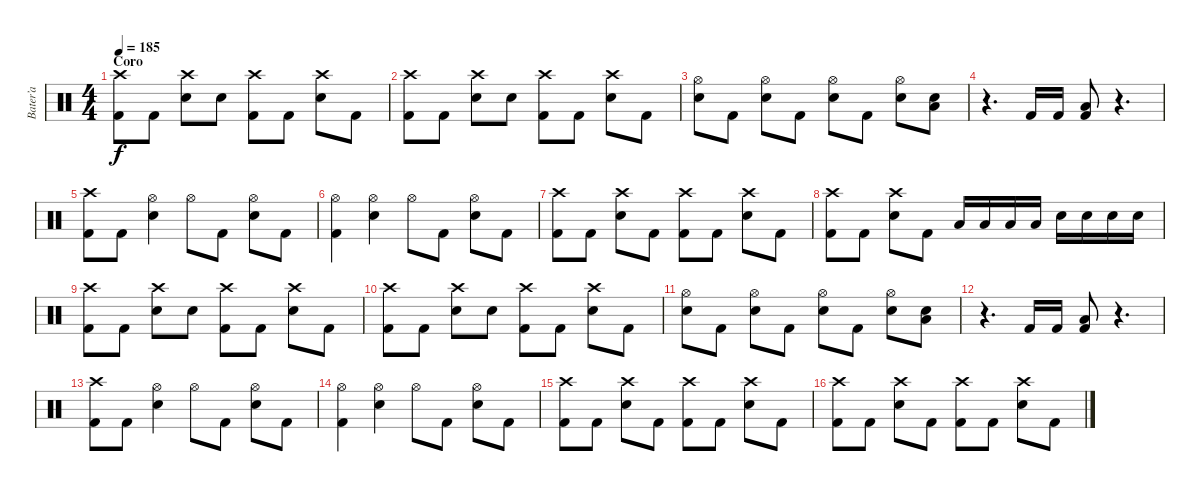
\track ("Bater’a" "Bater’a") {instrument percussion}
\staff {score}
\articulation defaults
\ts (4 4)
\section ("" "Coro")
\tempo 185
\clef neutral
\ks c
("Crash high (hit)" "Kick (hit) 2").8{dy f} "Kick (hit) 2".8 ("Crash high (hit)" "Electric Snare (hit)").8 "Electric Snare (hit)".8 ("Crash high (hit)" "Kick (hit) 2").8 "Kick (hit) 2".8 ("Crash high (hit)" "Electric Snare (hit)").8 "Kick (hit) 2".8 |
("Crash high (hit)" "Kick (hit) 2").8 "Kick (hit) 2".8 ("Crash high (hit)" "Electric Snare (hit)").8 "Electric Snare (hit)".8 ("Crash high (hit)" "Kick (hit) 2").8 "Kick (hit) 2".8 ("Crash high (hit)" "Electric Snare (hit)").8 "Kick (hit) 2".8 |
("Hi-Hat (open)" "Electric Snare (hit)").8 "Kick (hit) 2".8 ("Hi-Hat (open)" "Electric Snare (hit)").8 "Kick (hit) 2".8 ("Hi-Hat (open)" "Electric Snare (hit)").8 "Kick (hit) 2".8 ("Hi-Hat (open)" "Electric Snare (hit)").8 ("Low Floor Tom (hit)" "Electric Snare (hit)").8 |
r.4{d} "Kick (hit) 2".16 "Kick (hit) 2".16 ("Low Floor Tom (hit)" "Kick (hit) 2").8 r.4{d} |
("Crash high (hit)" "Kick (hit) 2").8 "Kick (hit) 2".8 ("Hi-Hat (open)" "Electric Snare (hit)").4 "Hi-Hat (open)".8 "Kick (hit) 2".8 ("Hi-Hat (open)" "Electric Snare (hit)").8 "Kick (hit) 2".8 |
("Hi-Hat (open)" "Kick (hit) 2").4 ("Hi-Hat (open)" "Electric Snare (hit)").4 "Hi-Hat (open)".8 "Kick (hit) 2".8 ("Hi-Hat (open)" "Electric Snare (hit)").8 "Kick (hit) 2".8 |
("Crash high (hit)" "Kick (hit) 2").8 "Kick (hit) 2".8 ("Crash high (hit)" "Electric Snare (hit)").8 "Kick (hit) 2".8 ("Crash high (hit)" "Kick (hit) 2").8 "Kick (hit) 2".8 ("Crash high (hit)" "Electric Snare (hit)").8 "Kick (hit) 2".8 |
("Crash high (hit)" "Kick (hit) 2").8 "Kick (hit) 2".8 ("Crash high (hit)" "Electric Snare (hit)").8 "Kick (hit) 2".8 "Low Tom (hit)".16 "Low Tom (hit)".16 "Low Tom (hit)".16 "Low Tom (hit)".16 "Electric Snare (hit)".16 "Electric Snare (hit)".16 "Electric Snare (hit)".16 "Electric Snare (hit)".16 |
("Crash high (hit)" "Kick (hit) 2").8 "Kick (hit) 2".8 ("Crash high (hit)" "Electric Snare (hit)").8 "Electric Snare (hit)".8 ("Crash high (hit)" "Kick (hit) 2").8 "Kick (hit) 2".8 ("Crash high (hit)" "Electric Snare (hit)").8 "Kick (hit) 2".8 |
("Crash high (hit)" "Kick (hit) 2").8 "Kick (hit) 2".8 ("Crash high (hit)" "Electric Snare (hit)").8 "Electric Snare (hit)".8 ("Crash high (hit)" "Kick (hit) 2").8 "Kick (hit) 2".8 ("Crash high (hit)" "Electric Snare (hit)").8 "Kick (hit) 2".8 |
("Hi-Hat (open)" "Electric Snare (hit)").8 "Kick (hit) 2".8 ("Hi-Hat (open)" "Electric Snare (hit)").8 "Kick (hit) 2".8 ("Hi-Hat (open)" "Electric Snare (hit)").8 "Kick (hit) 2".8 ("Hi-Hat (open)" "Electric Snare (hit)").8 ("Low Floor Tom (hit)" "Electric Snare (hit)").8 |
r.4{d} "Kick (hit) 2".16 "Kick (hit) 2".16 ("Low Floor Tom (hit)" "Kick (hit) 2").8 r.4{d} |
("Crash high (hit)" "Kick (hit) 2").8 "Kick (hit) 2".8 ("Hi-Hat (open)" "Electric Snare (hit)").4 "Hi-Hat (open)".8 "Kick (hit) 2".8 ("Hi-Hat (open)" "Electric Snare (hit)").8 "Kick (hit) 2".8 |
("Hi-Hat (open)" "Kick (hit) 2").4 ("Hi-Hat (open)" "Electric Snare (hit)").4 "Hi-Hat (open)".8 "Kick (hit) 2".8 ("Hi-Hat (open)" "Electric Snare (hit)").8 "Kick (hit) 2".8 |
("Crash high (hit)" "Kick (hit) 2").8 "Kick (hit) 2".8 ("Crash high (hit)" "Electric Snare (hit)").8 "Kick (hit) 2".8 ("Crash high (hit)" "Kick (hit) 2").8 "Kick (hit) 2".8 ("Crash high (hit)" "Electric Snare (hit)").8 "Kick (hit) 2".8 |
("Crash high (hit)" "Kick (hit) 2").8 "Kick (hit) 2".8 ("Crash high (hit)" "Electric Snare (hit)").8 "Kick (hit) 2".8 ("Crash high (hit)" "Kick (hit) 2").8 "Kick (hit) 2".8 ("Crash high (hit)" "Electric Snare (hit)").8 "Kick (hit) 2".8
